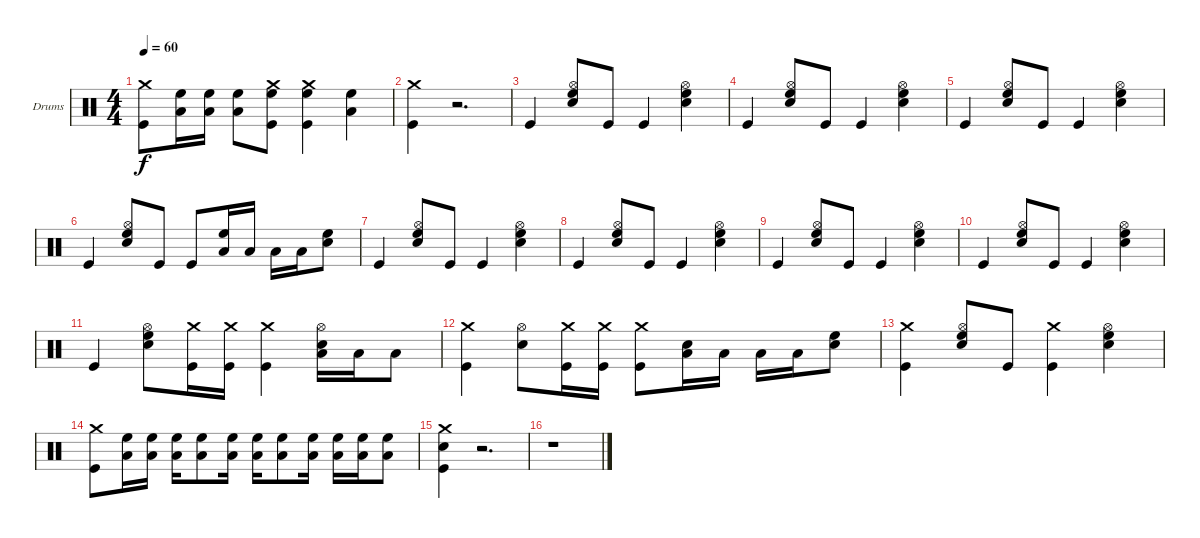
\bracketExtendMode groupsimilarinstruments
\firstSystemTrackNameOrientation horizontal
\otherSystemsTrackNameOrientation horizontal
\track ("Drumkit" "Drums") {instrument percussion}
\staff {score}
\articulation defaults
\ts (4 4)
\tempo 60
\clef neutral
\scale
0.333333
\ks c
("Crash medium (hit)" "Kick (hit)").8{dy f} ("High Floor Tom (hit)" "Low Tom (hit)").16 ("High Floor Tom (hit)" "Low Tom (hit)").16 ("High Floor Tom (hit)" "Low Tom (hit)").8 ("Crash medium (hit)" "High Floor Tom (hit)" "Kick (hit)").8 ("Crash medium (hit)" "High Floor Tom (hit)" "Kick (hit)").4 ("High Floor Tom (hit)" "Low Tom (hit)").4 |
\scale
0.333333 ("Crash medium (hit)" "Kick (hit)").4 r.2{d} |
\scale
0.333333 "Kick (hit)".4 ("Hi-Hat (open)" "High Floor Tom (hit)" "Snare (hit) 2").8 "Kick (hit)".8 "Kick (hit)".4 ("Hi-Hat (open)" "High Floor Tom (hit)" "Snare (hit) 2").4 |
\scale
0.333333 "Kick (hit)".4 ("Hi-Hat (open)" "High Floor Tom (hit)" "Snare (hit) 2").8 "Kick (hit)".8 "Kick (hit)".4 ("Hi-Hat (open)" "High Floor Tom (hit)" "Snare (hit) 2").4 |
\scale
0.333333 "Kick (hit)".4 ("Hi-Hat (open)" "High Floor Tom (hit)" "Snare (hit) 2").8 "Kick (hit)".8 "Kick (hit)".4 ("Hi-Hat (open)" "High Floor Tom (hit)" "Snare (hit) 2").4 |
\scale
0.333333 "Kick (hit)".4 ("Hi-Hat (open)" "High Floor Tom (hit)" "Snare (hit) 2").8 "Kick (hit)".8 "Kick (hit)".8 ("High Floor Tom (hit)" "Low Tom (hit)").16 "Low Tom (hit)".16 "Low Tom (hit)".16 "Low Tom (hit)".16 ("High Floor Tom (hit)" "Snare (hit) 2").8 |
\scale
0.333333 "Kick (hit)".4 ("Hi-Hat (open)" "High Floor Tom (hit)" "Snare (hit) 2").8 "Kick (hit)".8 "Kick (hit)".4 ("Hi-Hat (open)" "High Floor Tom (hit)" "Snare (hit) 2").4 |
\scale
0.333333 "Kick (hit)".4 ("Hi-Hat (open)" "High Floor Tom (hit)" "Snare (hit) 2").8 "Kick (hit)".8 "Kick (hit)".4 ("Hi-Hat (open)" "High Floor Tom (hit)" "Snare (hit) 2").4 |
\scale
0.333333 "Kick (hit)".4 ("Hi-Hat (open)" "High Floor Tom (hit)" "Snare (hit) 2").8 "Kick (hit)".8 "Kick (hit)".4 ("Hi-Hat (open)" "High Floor Tom (hit)" "Snare (hit) 2").4 |
\scale
0.333333 "Kick (hit)".4 ("Hi-Hat (open)" "High Floor Tom (hit)" "Snare (hit) 2").8 "Kick (hit)".8 "Kick (hit)".4 ("Hi-Hat (open)" "High Floor Tom (hit)" "Snare (hit) 2").4 |
\scale
0.333333 "Kick (hit)".4 ("Hi-Hat (open)" "Snare (hit) 2" "High Floor Tom (hit)").8 ("Crash medium (hit)" "Kick (hit)").16 ("Crash medium (hit)" "Kick (hit)").16 ("Crash medium (hit)" "Kick (hit)").4 ("Hi-Hat (open)" "Snare (hit) 2" "Low Tom (hit)").16 "Low Tom (hit)".16 "Low Tom (hit)".8 |
\scale
0.333333 ("Crash medium (hit)" "Kick (hit)").4 ("Hi-Hat (open)" "Snare (hit) 2").8 ("Crash medium (hit)" "Kick (hit)").16 ("Crash medium (hit)" "Kick (hit)").16 ("Crash medium (hit)" "Kick (hit)").8 ("Snare (hit) 2" "Low Tom (hit)").16 "Low Tom (hit)".16 "Low Tom (hit)".16 "Low Tom (hit)".16 ("High Floor Tom (hit)" "Snare (hit) 2").8 |
\scale
0.333333 ("Crash medium (hit)" "Kick (hit)").4 ("Hi-Hat (open)" "High Floor Tom (hit)" "Snare (hit) 2").8 "Kick (hit)".8 ("Crash medium (hit)" "Kick (hit)").4 ("Hi-Hat (open)" "High Floor Tom (hit)" "Snare (hit) 2").4 |
\scale
0.333333 ("Crash medium (hit)" "Kick (hit)").8 ("High Floor Tom (hit)" "Low Tom (hit)").16 ("High Floor Tom (hit)" "Low Tom (hit)").16 ("High Floor Tom (hit)" "Low Tom (hit)").16 ("High Floor Tom (hit)" "Low Tom (hit)").8 ("High Floor Tom (hit)" "Low Tom (hit)").16 ("High Floor Tom (hit)" "Low Tom (hit)").16 ("High Floor Tom (hit)" "Low Tom (hit)").8 ("High Floor Tom (hit)" "Low Tom (hit)").16 ("High Floor Tom (hit)" "Low Tom (hit)").16 ("High Floor Tom (hit)" "Low Tom (hit)").16 ("High Floor Tom (hit)" "Low Tom (hit)").8 |
\scale
0.333333 ("Crash medium (hit)" "Snare (hit) 2" "Kick (hit)").4 r.2{d} |
\scale
0.333333 r.1
